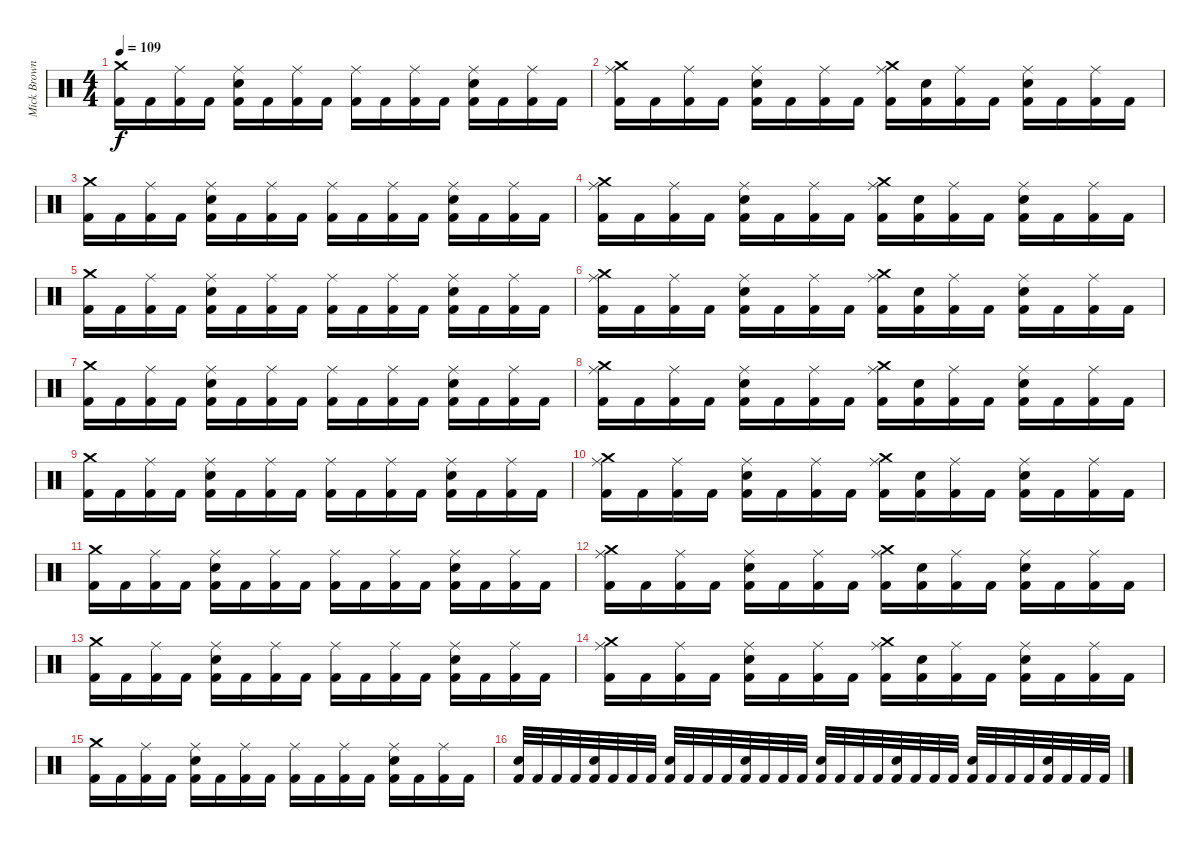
\track ("Mick Brown" "Mick Brown") {instrument percussion}
\staff {score}
\articulation defaults
\ts (4 4)
\tempo 109
\clef neutral
\ks c
("Crash medium (hit)" "Kick (hit) 2").16{dy f} "Kick (hit) 2".16 ("Ride (middle)" "Kick (hit) 2").16 "Kick (hit) 2".16 ("Ride (middle)" "Snare (hit) 2" "Kick (hit) 2").16 "Kick (hit) 2".16 ("Ride (middle)" "Kick (hit) 2").16 "Kick (hit) 2".16 ("Ride (middle)" "Kick (hit) 2").16 "Kick (hit) 2".16 ("Ride (middle)" "Kick (hit) 2").16 "Kick (hit) 2".16 ("Ride (middle)" "Snare (hit) 2" "Kick (hit) 2").16 "Kick (hit) 2".16 ("Ride (middle)" "Kick (hit) 2").16 "Kick (hit) 2".16 |
("Crash medium (hit)" "Ride (middle)" "Kick (hit) 2").16 "Kick (hit) 2".16 ("Ride (middle)" "Kick (hit) 2").16 "Kick (hit) 2".16 ("Ride (middle)" "Snare (hit) 2" "Kick (hit) 2").16 "Kick (hit) 2".16 ("Ride (middle)" "Kick (hit) 2").16 "Kick (hit) 2".16 ("Crash medium (hit)" "Ride (middle)" "Kick (hit) 2").16 ("Snare (hit) 2" "Kick (hit) 2").16 ("Ride (middle)" "Kick (hit) 2").16 "Kick (hit) 2".16 ("Ride (middle)" "Snare (hit) 2" "Kick (hit) 2").16 "Kick (hit) 2".16 ("Ride (middle)" "Kick (hit) 2").16 "Kick (hit) 2".16 |
("Crash medium (hit)" "Kick (hit) 2").16 "Kick (hit) 2".16 ("Ride (middle)" "Kick (hit) 2").16 "Kick (hit) 2".16 ("Ride (middle)" "Snare (hit) 2" "Kick (hit) 2").16 "Kick (hit) 2".16 ("Ride (middle)" "Kick (hit) 2").16 "Kick (hit) 2".16 ("Ride (middle)" "Kick (hit) 2").16 "Kick (hit) 2".16 ("Ride (middle)" "Kick (hit) 2").16 "Kick (hit) 2".16 ("Ride (middle)" "Snare (hit) 2" "Kick (hit) 2").16 "Kick (hit) 2".16 ("Ride (middle)" "Kick (hit) 2").16 "Kick (hit) 2".16 |
("Crash medium (hit)" "Ride (middle)" "Kick (hit) 2").16 "Kick (hit) 2".16 ("Ride (middle)" "Kick (hit) 2").16 "Kick (hit) 2".16 ("Ride (middle)" "Snare (hit) 2" "Kick (hit) 2").16 "Kick (hit) 2".16 ("Ride (middle)" "Kick (hit) 2").16 "Kick (hit) 2".16 ("Crash medium (hit)" "Ride (middle)" "Kick (hit) 2").16 ("Snare (hit) 2" "Kick (hit) 2").16 ("Ride (middle)" "Kick (hit) 2").16 "Kick (hit) 2".16 ("Ride (middle)" "Snare (hit) 2" "Kick (hit) 2").16 "Kick (hit) 2".16 ("Ride (middle)" "Kick (hit) 2").16 "Kick (hit) 2".16 |
("Crash medium (hit)" "Kick (hit) 2").16 "Kick (hit) 2".16 ("Ride (middle)" "Kick (hit) 2").16 "Kick (hit) 2".16 ("Ride (middle)" "Snare (hit) 2" "Kick (hit) 2").16 "Kick (hit) 2".16 ("Ride (middle)" "Kick (hit) 2").16 "Kick (hit) 2".16 ("Ride (middle)" "Kick (hit) 2").16 "Kick (hit) 2".16 ("Ride (middle)" "Kick (hit) 2").16 "Kick (hit) 2".16 ("Ride (middle)" "Snare (hit) 2" "Kick (hit) 2").16 "Kick (hit) 2".16 ("Ride (middle)" "Kick (hit) 2").16 "Kick (hit) 2".16 |
("Crash medium (hit)" "Ride (middle)" "Kick (hit) 2").16 "Kick (hit) 2".16 ("Ride (middle)" "Kick (hit) 2").16 "Kick (hit) 2".16 ("Ride (middle)" "Snare (hit) 2" "Kick (hit) 2").16 "Kick (hit) 2".16 ("Ride (middle)" "Kick (hit) 2").16 "Kick (hit) 2".16 ("Crash medium (hit)" "Ride (middle)" "Kick (hit) 2").16 ("Snare (hit) 2" "Kick (hit) 2").16 ("Ride (middle)" "Kick (hit) 2").16 "Kick (hit) 2".16 ("Ride (middle)" "Snare (hit) 2" "Kick (hit) 2").16 "Kick (hit) 2".16 ("Ride (middle)" "Kick (hit) 2").16 "Kick (hit) 2".16 |
("Crash medium (hit)" "Kick (hit) 2").16 "Kick (hit) 2".16 ("Ride (middle)" "Kick (hit) 2").16 "Kick (hit) 2".16 ("Ride (middle)" "Snare (hit) 2" "Kick (hit) 2").16 "Kick (hit) 2".16 ("Ride (middle)" "Kick (hit) 2").16 "Kick (hit) 2".16 ("Ride (middle)" "Kick (hit) 2").16 "Kick (hit) 2".16 ("Ride (middle)" "Kick (hit) 2").16 "Kick (hit) 2".16 ("Ride (middle)" "Snare (hit) 2" "Kick (hit) 2").16 "Kick (hit) 2".16 ("Ride (middle)" "Kick (hit) 2").16 "Kick (hit) 2".16 |
("Crash medium (hit)" "Ride (middle)" "Kick (hit) 2").16 "Kick (hit) 2".16 ("Ride (middle)" "Kick (hit) 2").16 "Kick (hit) 2".16 ("Ride (middle)" "Snare (hit) 2" "Kick (hit) 2").16 "Kick (hit) 2".16 ("Ride (middle)" "Kick (hit) 2").16 "Kick (hit) 2".16 ("Crash medium (hit)" "Ride (middle)" "Kick (hit) 2").16 ("Snare (hit) 2" "Kick (hit) 2").16 ("Ride (middle)" "Kick (hit) 2").16 "Kick (hit) 2".16 ("Ride (middle)" "Snare (hit) 2" "Kick (hit) 2").16 "Kick (hit) 2".16 ("Ride (middle)" "Kick (hit) 2").16 "Kick (hit) 2".16 |
("Crash medium (hit)" "Kick (hit) 2").16 "Kick (hit) 2".16 ("Ride (middle)" "Kick (hit) 2").16 "Kick (hit) 2".16 ("Ride (middle)" "Snare (hit) 2" "Kick (hit) 2").16 "Kick (hit) 2".16 ("Ride (middle)" "Kick (hit) 2").16 "Kick (hit) 2".16 ("Ride (middle)" "Kick (hit) 2").16 "Kick (hit) 2".16 ("Ride (middle)" "Kick (hit) 2").16 "Kick (hit) 2".16 ("Ride (middle)" "Snare (hit) 2" "Kick (hit) 2").16 "Kick (hit) 2".16 ("Ride (middle)" "Kick (hit) 2").16 "Kick (hit) 2".16 |
("Crash medium (hit)" "Ride (middle)" "Kick (hit) 2").16 "Kick (hit) 2".16 ("Ride (middle)" "Kick (hit) 2").16 "Kick (hit) 2".16 ("Ride (middle)" "Snare (hit) 2" "Kick (hit) 2").16 "Kick (hit) 2".16 ("Ride (middle)" "Kick (hit) 2").16 "Kick (hit) 2".16 ("Crash medium (hit)" "Ride (middle)" "Kick (hit) 2").16 ("Snare (hit) 2" "Kick (hit) 2").16 ("Ride (middle)" "Kick (hit) 2").16 "Kick (hit) 2".16 ("Ride (middle)" "Snare (hit) 2" "Kick (hit) 2").16 "Kick (hit) 2".16 ("Ride (middle)" "Kick (hit) 2").16 "Kick (hit) 2".16 |
("Crash medium (hit)" "Kick (hit) 2").16 "Kick (hit) 2".16 ("Ride (middle)" "Kick (hit) 2").16 "Kick (hit) 2".16 ("Ride (middle)" "Snare (hit) 2" "Kick (hit) 2").16 "Kick (hit) 2".16 ("Ride (middle)" "Kick (hit) 2").16 "Kick (hit) 2".16 ("Ride (middle)" "Kick (hit) 2").16 "Kick (hit) 2".16 ("Ride (middle)" "Kick (hit) 2").16 "Kick (hit) 2".16 ("Ride (middle)" "Snare (hit) 2" "Kick (hit) 2").16 "Kick (hit) 2".16 ("Ride (middle)" "Kick (hit) 2").16 "Kick (hit) 2".16 |
("Crash medium (hit)" "Ride (middle)" "Kick (hit) 2").16 "Kick (hit) 2".16 ("Ride (middle)" "Kick (hit) 2").16 "Kick (hit) 2".16 ("Ride (middle)" "Snare (hit) 2" "Kick (hit) 2").16 "Kick (hit) 2".16 ("Ride (middle)" "Kick (hit) 2").16 "Kick (hit) 2".16 ("Crash medium (hit)" "Ride (middle)" "Kick (hit) 2").16 ("Snare (hit) 2" "Kick (hit) 2").16 ("Ride (middle)" "Kick (hit) 2").16 "Kick (hit) 2".16 ("Ride (middle)" "Snare (hit) 2" "Kick (hit) 2").16 "Kick (hit) 2".16 ("Ride (middle)" "Kick (hit) 2").16 "Kick (hit) 2".16 |
("Crash medium (hit)" "Kick (hit) 2").16 "Kick (hit) 2".16 ("Ride (middle)" "Kick (hit) 2").16 "Kick (hit) 2".16 ("Ride (middle)" "Snare (hit) 2" "Kick (hit) 2").16 "Kick (hit) 2".16 ("Ride (middle)" "Kick (hit) 2").16 "Kick (hit) 2".16 ("Ride (middle)" "Kick (hit) 2").16 "Kick (hit) 2".16 ("Ride (middle)" "Kick (hit) 2").16 "Kick (hit) 2".16 ("Ride (middle)" "Snare (hit) 2" "Kick (hit) 2").16 "Kick (hit) 2".16 ("Ride (middle)" "Kick (hit) 2").16 "Kick (hit) 2".16 |
("Crash medium (hit)" "Ride (middle)" "Kick (hit) 2").16 "Kick (hit) 2".16 ("Ride (middle)" "Kick (hit) 2").16 "Kick (hit) 2".16 ("Ride (middle)" "Snare (hit) 2" "Kick (hit) 2").16 "Kick (hit) 2".16 ("Ride (middle)" "Kick (hit) 2").16 "Kick (hit) 2".16 ("Crash medium (hit)" "Ride (middle)" "Kick (hit) 2").16 ("Snare (hit) 2" "Kick (hit) 2").16 ("Ride (middle)" "Kick (hit) 2").16 "Kick (hit) 2".16 ("Ride (middle)" "Snare (hit) 2" "Kick (hit) 2").16 "Kick (hit) 2".16 ("Ride (middle)" "Kick (hit) 2").16 "Kick (hit) 2".16 |
("Crash medium (hit)" "Kick (hit) 2").16 "Kick (hit) 2".16 ("Ride (middle)" "Kick (hit) 2").16 "Kick (hit) 2".16 ("Ride (middle)" "Snare (hit) 2" "Kick (hit) 2").16 "Kick (hit) 2".16 ("Ride (middle)" "Kick (hit) 2").16 "Kick (hit) 2".16 ("Ride (middle)" "Kick (hit) 2").16 "Kick (hit) 2".16 ("Ride (middle)" "Kick (hit) 2").16 "Kick (hit) 2".16 ("Ride (middle)" "Snare (hit) 2" "Kick (hit) 2").16 "Kick (hit) 2".16 ("Ride (middle)" "Kick (hit) 2").16 "Kick (hit) 2".16 |
("Snare (hit) 2" "Kick (hit) 2").32 "Kick (hit) 2".32 "Kick (hit) 2".32 "Kick (hit) 2".32 ("Snare (hit) 2" "Kick (hit) 2").32 "Kick (hit) 2".32 "Kick (hit) 2".32 "Kick (hit) 2".32 ("Snare (hit) 2" "Kick (hit) 2").32 "Kick (hit) 2".32 "Kick (hit) 2".32 "Kick (hit) 2".32 ("Snare (hit) 2" "Kick (hit) 2").32 "Kick (hit) 2".32 "Kick (hit) 2".32 "Kick (hit) 2".32 ("Snare (hit) 2" "Kick (hit) 2").32 "Kick (hit) 2".32 "Kick (hit) 2".32 "Kick (hit) 2".32 ("Snare (hit) 2" "Kick (hit) 2").32 "Kick (hit) 2".32 "Kick (hit) 2".32 "Kick (hit) 2".32 ("Snare (hit) 2" "Kick (hit) 2").32 "Kick (hit) 2".32 "Kick (hit) 2".32 "Kick (hit) 2".32 ("Snare (hit) 2" "Kick (hit) 2").32 "Kick (hit) 2".32 "Kick (hit) 2".32 "Kick (hit) 2".32
